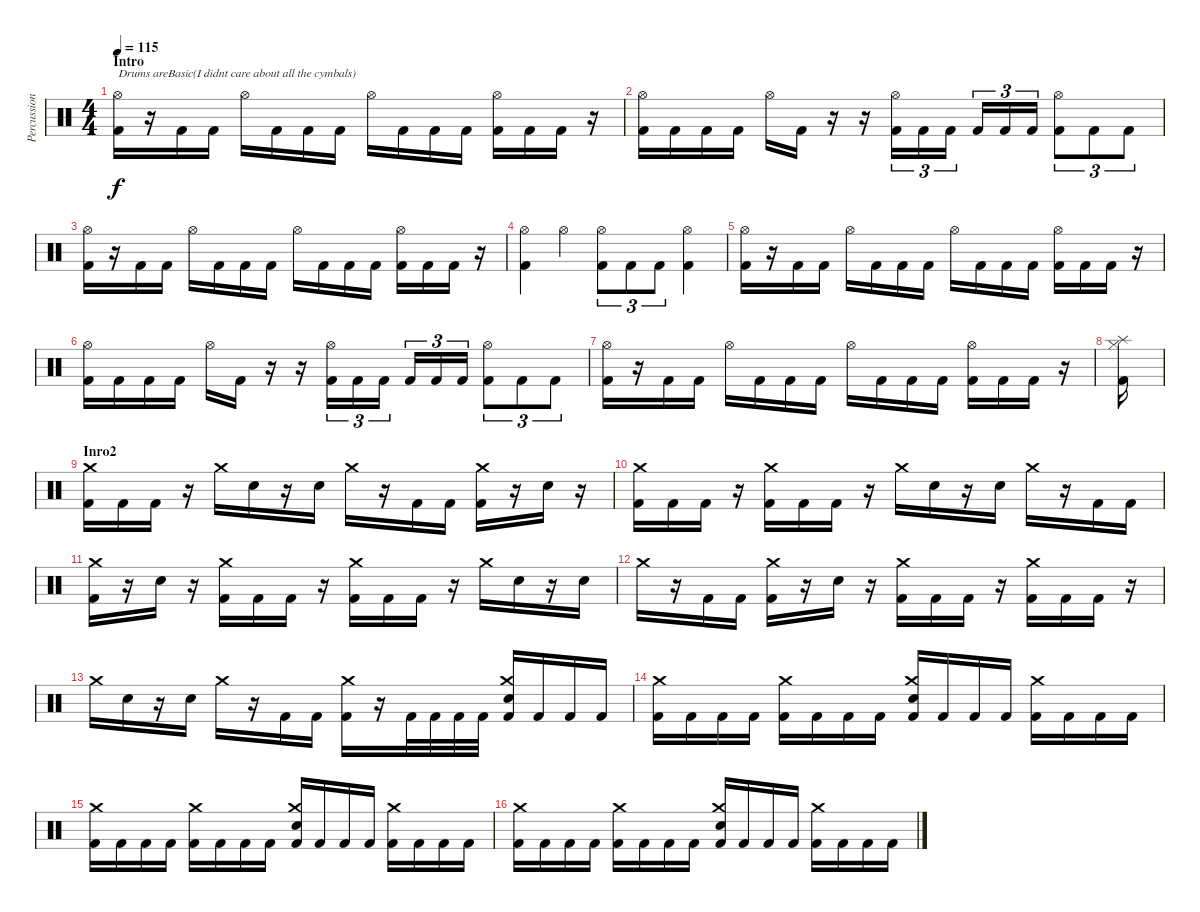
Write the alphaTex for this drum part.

\track ("Percussion" "Percussion") {instrument percussion}
\staff {score}
\articulation defaults
\ts (4 4)
\section ("" "Intro")
\tempo 115
\clef neutral
\ks c
("Hi-Hat (open)" "Kick (hit) 2").16{txt "Drums areBasic(I didnt care about all the cymbals)" dy f} r.16 "Kick (hit) 2".16 "Kick (hit) 2".16 "Hi-Hat (open)".16 "Kick (hit) 2".16 "Kick (hit) 2".16 "Kick (hit) 2".16 "Hi-Hat (open)".16 "Kick (hit) 2".16 "Kick (hit) 2".16 "Kick (hit) 2".16 ("Hi-Hat (open)" "Kick (hit) 2").16 "Kick (hit) 2".16 "Kick (hit) 2".16 r.16 |
("Hi-Hat (open)" "Kick (hit) 2").16 "Kick (hit) 2".16 "Kick (hit) 2".16 "Kick (hit) 2".16 "Hi-Hat (open)".16 "Kick (hit) 2".16 r.16 r.16 ("Hi-Hat (open)" "Kick (hit) 2").16{tu (3 2)} "Kick (hit) 2".16{tu (3 2)} "Kick (hit) 2".16{tu (3 2)} "Kick (hit) 2".16{tu (3 2)} "Kick (hit) 2".16{tu (3 2)} "Kick (hit) 2".16{tu (3 2)} ("Hi-Hat (open)" "Kick (hit) 2").8{tu (3 2)} "Kick (hit) 2".8{tu (3 2)} "Kick (hit) 2".8{tu (3 2)} |
("Hi-Hat (open)" "Kick (hit) 2").16 r.16 "Kick (hit) 2".16 "Kick (hit) 2".16 "Hi-Hat (open)".16 "Kick (hit) 2".16 "Kick (hit) 2".16 "Kick (hit) 2".16 "Hi-Hat (open)".16 "Kick (hit) 2".16 "Kick (hit) 2".16 "Kick (hit) 2".16 ("Hi-Hat (open)" "Kick (hit) 2").16 "Kick (hit) 2".16 "Kick (hit) 2".16 r.16 |
("Hi-Hat (open)" "Kick (hit) 2").4 "Hi-Hat (open)".4 ("Hi-Hat (open)" "Kick (hit) 2").8{tu (3 2)} "Kick (hit) 2".8{tu (3 2)} "Kick (hit) 2".8{tu (3 2)} ("Hi-Hat (open)" "Kick (hit) 2").4 |
("Hi-Hat (open)" "Kick (hit) 2").16 r.16 "Kick (hit) 2".16 "Kick (hit) 2".16 "Hi-Hat (open)".16 "Kick (hit) 2".16 "Kick (hit) 2".16 "Kick (hit) 2".16 "Hi-Hat (open)".16 "Kick (hit) 2".16 "Kick (hit) 2".16 "Kick (hit) 2".16 ("Hi-Hat (open)" "Kick (hit) 2").16 "Kick (hit) 2".16 "Kick (hit) 2".16 r.16 |
("Hi-Hat (open)" "Kick (hit) 2").16 "Kick (hit) 2".16 "Kick (hit) 2".16 "Kick (hit) 2".16 "Hi-Hat (open)".16 "Kick (hit) 2".16 r.16 r.16 ("Hi-Hat (open)" "Kick (hit) 2").16{tu (3 2)} "Kick (hit) 2".16{tu (3 2)} "Kick (hit) 2".16{tu (3 2)} "Kick (hit) 2".16{tu (3 2)} "Kick (hit) 2".16{tu (3 2)} "Kick (hit) 2".16{tu (3 2)} ("Hi-Hat (open)" "Kick (hit) 2").8{tu (3 2)} "Kick (hit) 2".8{tu (3 2)} "Kick (hit) 2".8{tu (3 2)} |
("Hi-Hat (open)" "Kick (hit) 2").16 r.16 "Kick (hit) 2".16 "Kick (hit) 2".16 "Hi-Hat (open)".16 "Kick (hit) 2".16 "Kick (hit) 2".16 "Kick (hit) 2".16 "Hi-Hat (open)".16 "Kick (hit) 2".16 "Kick (hit) 2".16 "Kick (hit) 2".16 ("Hi-Hat (open)" "Kick (hit) 2").16 "Kick (hit) 2".16 "Kick (hit) 2".16 r.16 |
("Splash (hit)" "Hi-Hat (closed)" "Kick (hit) 2").16 |
\section ("" "Inro2")
("Crash medium (hit)" "Kick (hit) 2").16 "Kick (hit) 2".16 "Kick (hit) 2".16 r.16 "Crash medium (hit)".16 "Electric Snare (hit)".16 r.16 "Electric Snare (hit)".16 "Crash medium (hit)".16 r.16 "Kick (hit) 2".16 "Kick (hit) 2".16 ("Crash medium (hit)" "Kick (hit) 2").16 r.16 "Electric Snare (hit)".16 r.16 |
("Crash medium (hit)" "Kick (hit) 2").16 "Kick (hit) 2".16 "Kick (hit) 2".16 r.16 ("Crash medium (hit)" "Kick (hit) 2").16 "Kick (hit) 2".16 "Kick (hit) 2".16 r.16 "Crash medium (hit)".16 "Electric Snare (hit)".16 r.16 "Electric Snare (hit)".16 "Crash medium (hit)".16 r.16 "Kick (hit) 2".16 "Kick (hit) 2".16 |
("Crash medium (hit)" "Kick (hit) 2").16 r.16 "Electric Snare (hit)".16 r.16 ("Crash medium (hit)" "Kick (hit) 2").16 "Kick (hit) 2".16 "Kick (hit) 2".16 r.16 ("Crash medium (hit)" "Kick (hit) 2").16 "Kick (hit) 2".16 "Kick (hit) 2".16 r.16 "Crash medium (hit)".16 "Electric Snare (hit)".16 r.16 "Electric Snare (hit)".16 |
"Crash medium (hit)".16 r.16 "Kick (hit) 2".16 "Kick (hit) 2".16 ("Crash medium (hit)" "Kick (hit) 2").16 r.16 "Electric Snare (hit)".16 r.16 ("Crash medium (hit)" "Kick (hit) 2").16 "Kick (hit) 2".16 "Kick (hit) 2".16 r.16 ("Crash medium (hit)" "Kick (hit) 2").16 "Kick (hit) 2".16 "Kick (hit) 2".16 r.16 |
"Crash medium (hit)".16 "Electric Snare (hit)".16 r.16 "Electric Snare (hit)".16 "Crash medium (hit)".16 r.16 "Kick (hit) 2".16 "Kick (hit) 2".16 ("Crash medium (hit)" "Kick (hit) 2").16 r.16 "Kick (hit) 2".32 "Kick (hit) 2".32 "Kick (hit) 2".32 "Kick (hit) 2".32 ("Crash medium (hit)" "Electric Snare (hit)" "Kick (hit) 2").16 "Kick (hit) 2".16 "Kick (hit) 2".16 "Kick (hit) 2".16 |
("Crash medium (hit)" "Kick (hit) 2").16 "Kick (hit) 2".16 "Kick (hit) 2".16 "Kick (hit) 2".16 ("Crash medium (hit)" "Kick (hit) 2").16 "Kick (hit) 2".16 "Kick (hit) 2".16 "Kick (hit) 2".16 ("Crash medium (hit)" "Electric Snare (hit)" "Kick (hit) 2").16 "Kick (hit) 2".16 "Kick (hit) 2".16 "Kick (hit) 2".16 ("Crash medium (hit)" "Kick (hit) 2").16 "Kick (hit) 2".16 "Kick (hit) 2".16 "Kick (hit) 2".16 |
("Crash medium (hit)" "Kick (hit) 2").16 "Kick (hit) 2".16 "Kick (hit) 2".16 "Kick (hit) 2".16 ("Crash medium (hit)" "Kick (hit) 2").16 "Kick (hit) 2".16 "Kick (hit) 2".16 "Kick (hit) 2".16 ("Crash medium (hit)" "Electric Snare (hit)" "Kick (hit) 2").16 "Kick (hit) 2".16 "Kick (hit) 2".16 "Kick (hit) 2".16 ("Crash medium (hit)" "Kick (hit) 2").16 "Kick (hit) 2".16 "Kick (hit) 2".16 "Kick (hit) 2".16 |
("Crash medium (hit)" "Kick (hit) 2").16 "Kick (hit) 2".16 "Kick (hit) 2".16 "Kick (hit) 2".16 ("Crash medium (hit)" "Kick (hit) 2").16 "Kick (hit) 2".16 "Kick (hit) 2".16 "Kick (hit) 2".16 ("Crash medium (hit)" "Electric Snare (hit)" "Kick (hit) 2").16 "Kick (hit) 2".16 "Kick (hit) 2".16 "Kick (hit) 2".16 ("Crash medium (hit)" "Kick (hit) 2").16 "Kick (hit) 2".16 "Kick (hit) 2".16 "Kick (hit) 2".16
